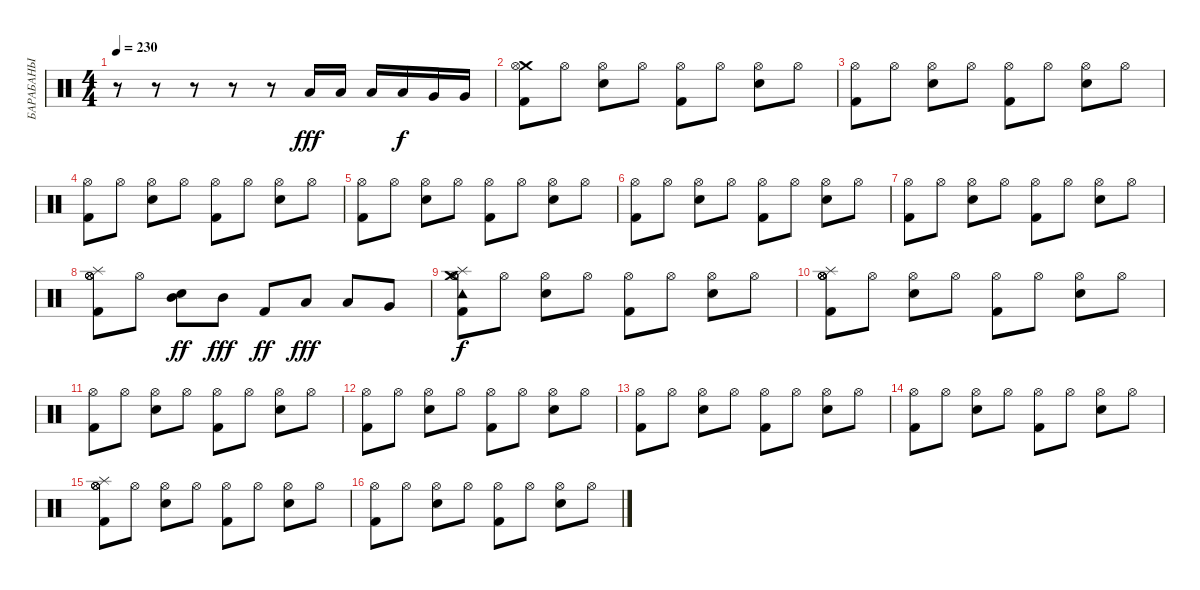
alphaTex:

\track ("БАРАБАНЫ" "БАРАБАНЫ") {instrument percussion}
\staff {score}
\articulation defaults
\ts (4 4)
\tempo 230
\clef neutral
\ks c
r.8{dy fff} r.8 r.8 r.8 r.8 "Low Tom (hit)".16 "Low Tom (hit)".16 "Low Tom (hit)".16 "Low Tom (hit)".16{dy f} "Very Low Tom (hit)".16 "Very Low Tom (hit)".16 |
("Crash medium (hit)" "Hi-Hat (open)" "Kick (hit) 2").8 "Hi-Hat (open)".8 ("Hi-Hat (open)" "Electric Snare (hit)").8 "Hi-Hat (open)".8 ("Hi-Hat (open)" "Kick (hit) 2").8 "Hi-Hat (open)".8 ("Hi-Hat (open)" "Electric Snare (hit)").8 "Hi-Hat (open)".8 |
("Hi-Hat (open)" "Kick (hit) 2").8 "Hi-Hat (open)".8 ("Hi-Hat (open)" "Electric Snare (hit)").8 "Hi-Hat (open)".8 ("Hi-Hat (open)" "Kick (hit) 2").8 "Hi-Hat (open)".8 ("Hi-Hat (open)" "Electric Snare (hit)").8 "Hi-Hat (open)".8 |
("Hi-Hat (open)" "Kick (hit) 2").8 "Hi-Hat (open)".8 ("Hi-Hat (open)" "Electric Snare (hit)").8 "Hi-Hat (open)".8 ("Hi-Hat (open)" "Kick (hit) 2").8 "Hi-Hat (open)".8 ("Hi-Hat (open)" "Electric Snare (hit)").8 "Hi-Hat (open)".8 |
("Hi-Hat (open)" "Kick (hit) 2").8 "Hi-Hat (open)".8 ("Hi-Hat (open)" "Electric Snare (hit)").8 "Hi-Hat (open)".8 ("Hi-Hat (open)" "Kick (hit) 2").8 "Hi-Hat (open)".8 ("Hi-Hat (open)" "Electric Snare (hit)").8 "Hi-Hat (open)".8 |
("Hi-Hat (open)" "Kick (hit) 2").8 "Hi-Hat (open)".8 ("Hi-Hat (open)" "Electric Snare (hit)").8 "Hi-Hat (open)".8 ("Hi-Hat (open)" "Kick (hit) 2").8 "Hi-Hat (open)".8 ("Hi-Hat (open)" "Electric Snare (hit)").8 "Hi-Hat (open)".8 |
("Hi-Hat (open)" "Kick (hit) 2").8 "Hi-Hat (open)".8 ("Hi-Hat (open)" "Electric Snare (hit)").8 "Hi-Hat (open)".8 ("Hi-Hat (open)" "Kick (hit) 2").8 "Hi-Hat (open)".8 ("Hi-Hat (open)" "Electric Snare (hit)").8 "Hi-Hat (open)".8 |
("Hi-Hat (open)" "Hi-Hat (open)" "Splash (hit)" "Hi-Hat (open)" "Kick (hit) 2").8 "Hi-Hat (open)".8 ("Mid Tom (hit)" "Electric Snare (hit)").8{dy ff} "Mid Tom (hit)".8{dy fff} "Kick (hit) 2".8{dy ff} "Low Tom (hit)".8{dy fff} "Low Tom (hit)".8 "Very Low Tom (hit)".8 |
("Crash medium (hit)" "Hi-Hat (open)" "Splash (hit)" "Tambourine (hit)" "Hi-Hat (open)" "Kick (hit) 2").8{dy f} "Hi-Hat (open)".8 ("Hi-Hat (open)" "Electric Snare (hit)").8 "Hi-Hat (open)".8 ("Hi-Hat (open)" "Kick (hit) 2").8 "Hi-Hat (open)".8 ("Hi-Hat (open)" "Electric Snare (hit)").8 "Hi-Hat (open)".8 |
("Hi-Hat (open)" "Hi-Hat (open)" "Splash (hit)" "Hi-Hat (open)" "Hi-Hat (open)" "Kick (hit) 2").8 "Hi-Hat (open)".8 ("Hi-Hat (open)" "Electric Snare (hit)").8 "Hi-Hat (open)".8 ("Hi-Hat (open)" "Kick (hit) 2").8 "Hi-Hat (open)".8 ("Hi-Hat (open)" "Electric Snare (hit)").8 "Hi-Hat (open)".8 |
("Hi-Hat (open)" "Kick (hit) 2").8 "Hi-Hat (open)".8 ("Hi-Hat (open)" "Electric Snare (hit)").8 "Hi-Hat (open)".8 ("Hi-Hat (open)" "Kick (hit) 2").8 "Hi-Hat (open)".8 ("Hi-Hat (open)" "Electric Snare (hit)").8 "Hi-Hat (open)".8 |
("Hi-Hat (open)" "Kick (hit) 2").8 "Hi-Hat (open)".8 ("Hi-Hat (open)" "Electric Snare (hit)").8 "Hi-Hat (open)".8 ("Hi-Hat (open)" "Kick (hit) 2").8 "Hi-Hat (open)".8 ("Hi-Hat (open)" "Electric Snare (hit)").8 "Hi-Hat (open)".8 |
("Hi-Hat (open)" "Kick (hit) 2").8 "Hi-Hat (open)".8 ("Hi-Hat (open)" "Electric Snare (hit)").8 "Hi-Hat (open)".8 ("Hi-Hat (open)" "Kick (hit) 2").8 "Hi-Hat (open)".8 ("Hi-Hat (open)" "Electric Snare (hit)").8 "Hi-Hat (open)".8 |
("Hi-Hat (open)" "Kick (hit) 2").8 "Hi-Hat (open)".8 ("Hi-Hat (open)" "Electric Snare (hit)").8 "Hi-Hat (open)".8 ("Hi-Hat (open)" "Kick (hit) 2").8 "Hi-Hat (open)".8 ("Hi-Hat (open)" "Electric Snare (hit)").8 "Hi-Hat (open)".8 |
("Hi-Hat (open)" "Hi-Hat (open)" "Splash (hit)" "Hi-Hat (open)" "Kick (hit) 2").8 "Hi-Hat (open)".8 ("Hi-Hat (open)" "Electric Snare (hit)").8 "Hi-Hat (open)".8 ("Hi-Hat (open)" "Kick (hit) 2").8 "Hi-Hat (open)".8 ("Hi-Hat (open)" "Electric Snare (hit)").8 "Hi-Hat (open)".8 |
("Hi-Hat (open)" "Kick (hit) 2").8 "Hi-Hat (open)".8 ("Hi-Hat (open)" "Electric Snare (hit)").8 "Hi-Hat (open)".8 ("Hi-Hat (open)" "Kick (hit) 2").8 "Hi-Hat (open)".8 ("Hi-Hat (open)" "Electric Snare (hit)").8 "Hi-Hat (open)".8
